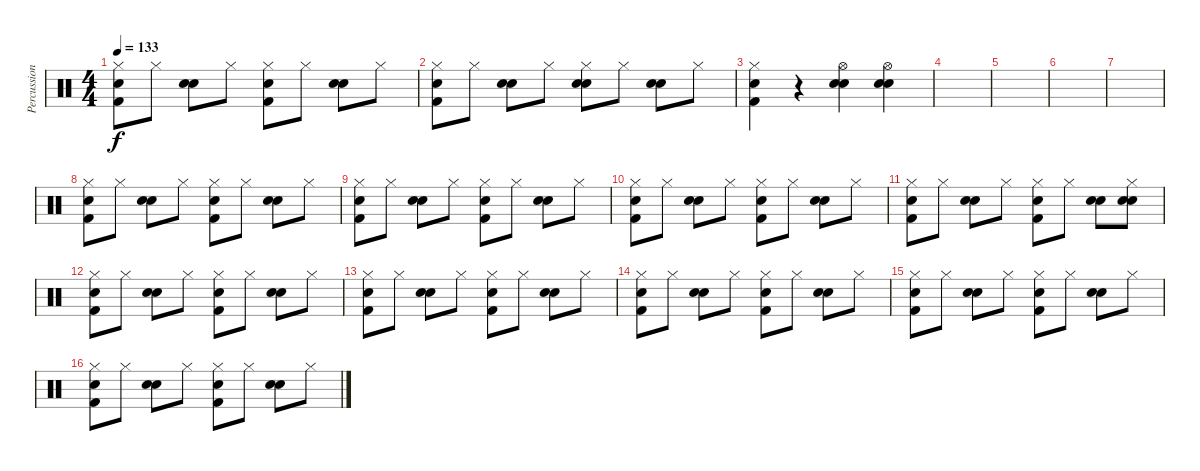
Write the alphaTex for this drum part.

\track ("Percussions" "Percussion") {instrument percussion}
\staff {score}
\articulation defaults
\ts (4 4)
\tempo 133
\clef neutral
\ks c
("Snare (hit) 2" "Kick (hit) 2" "Hi-Hat (closed)").8{dy f} "Hi-Hat (closed)".8 ("Electric Snare (hit)" "Electric Snare (hit)").8 "Hi-Hat (closed)".8 ("Snare (hit) 2" "Kick (hit) 2" "Hi-Hat (closed)").8 "Hi-Hat (closed)".8 ("Electric Snare (hit)" "Electric Snare (hit)").8 "Hi-Hat (closed)".8 |
("Snare (hit) 2" "Kick (hit) 2" "Hi-Hat (closed)").8 "Hi-Hat (closed)".8 ("Electric Snare (hit)" "Electric Snare (hit)").8 "Hi-Hat (closed)".8 ("Electric Snare (hit)" "Electric Snare (hit)" "Hi-Hat (closed)").8 "Hi-Hat (closed)".8 ("Electric Snare (hit)" "Electric Snare (hit)").8 "Hi-Hat (closed)".8 |
("Snare (hit) 2" "Kick (hit) 2" "Hi-Hat (closed)").4 r.4 ("Electric Snare (hit)" "Electric Snare (hit)" "Hi-Hat (open)").4 ("Snare (hit) 2" "Snare (hit) 2" "Hi-Hat (open)").4 |
|
|
|
|
("Snare (hit) 2" "Kick (hit) 2" "Hi-Hat (closed)").8 "Hi-Hat (closed)".8 ("Electric Snare (hit)" "Electric Snare (hit)").8 "Hi-Hat (closed)".8 ("Snare (hit) 2" "Kick (hit) 2" "Hi-Hat (closed)").8 "Hi-Hat (closed)".8 ("Electric Snare (hit)" "Electric Snare (hit)").8 "Hi-Hat (closed)".8 |
("Snare (hit) 2" "Kick (hit) 2" "Hi-Hat (closed)").8 "Hi-Hat (closed)".8 ("Electric Snare (hit)" "Electric Snare (hit)").8 "Hi-Hat (closed)".8 ("Snare (hit) 2" "Kick (hit) 2" "Hi-Hat (closed)").8 "Hi-Hat (closed)".8 ("Electric Snare (hit)" "Electric Snare (hit)").8 "Hi-Hat (closed)".8 |
("Snare (hit) 2" "Kick (hit) 2" "Hi-Hat (closed)").8 "Hi-Hat (closed)".8 ("Electric Snare (hit)" "Electric Snare (hit)").8 "Hi-Hat (closed)".8 ("Snare (hit) 2" "Kick (hit) 2" "Hi-Hat (closed)").8 "Hi-Hat (closed)".8 ("Electric Snare (hit)" "Electric Snare (hit)").8 "Hi-Hat (closed)".8 |
("Snare (hit) 2" "Kick (hit) 2" "Hi-Hat (closed)").8 "Hi-Hat (closed)".8 ("Electric Snare (hit)" "Electric Snare (hit)").8 "Hi-Hat (closed)".8 ("Snare (hit) 2" "Kick (hit) 2" "Hi-Hat (closed)").8 "Hi-Hat (closed)".8 ("Electric Snare (hit)" "Electric Snare (hit)").8 ("Electric Snare (hit)" "Electric Snare (hit)" "Hi-Hat (closed)").8 |
("Snare (hit) 2" "Kick (hit) 2" "Hi-Hat (closed)").8 "Hi-Hat (closed)".8 ("Electric Snare (hit)" "Electric Snare (hit)").8 "Hi-Hat (closed)".8 ("Snare (hit) 2" "Kick (hit) 2" "Hi-Hat (closed)").8 "Hi-Hat (closed)".8 ("Electric Snare (hit)" "Electric Snare (hit)").8 "Hi-Hat (closed)".8 |
("Snare (hit) 2" "Kick (hit) 2" "Hi-Hat (closed)").8 "Hi-Hat (closed)".8 ("Electric Snare (hit)" "Electric Snare (hit)").8 "Hi-Hat (closed)".8 ("Snare (hit) 2" "Kick (hit) 2" "Hi-Hat (closed)").8 "Hi-Hat (closed)".8 ("Electric Snare (hit)" "Electric Snare (hit)").8 "Hi-Hat (closed)".8 |
("Snare (hit) 2" "Kick (hit) 2" "Hi-Hat (closed)").8 "Hi-Hat (closed)".8 ("Electric Snare (hit)" "Electric Snare (hit)").8 "Hi-Hat (closed)".8 ("Snare (hit) 2" "Kick (hit) 2" "Hi-Hat (closed)").8 "Hi-Hat (closed)".8 ("Electric Snare (hit)" "Electric Snare (hit)").8 "Hi-Hat (closed)".8 |
("Snare (hit) 2" "Kick (hit) 2" "Hi-Hat (closed)").8 "Hi-Hat (closed)".8 ("Electric Snare (hit)" "Electric Snare (hit)").8 "Hi-Hat (closed)".8 ("Snare (hit) 2" "Kick (hit) 2" "Hi-Hat (closed)").8 "Hi-Hat (closed)".8 ("Electric Snare (hit)" "Electric Snare (hit)").8 "Hi-Hat (closed)".8 |
("Snare (hit) 2" "Kick (hit) 2" "Hi-Hat (closed)").8 "Hi-Hat (closed)".8 ("Electric Snare (hit)" "Electric Snare (hit)").8 "Hi-Hat (closed)".8 ("Snare (hit) 2" "Kick (hit) 2" "Hi-Hat (closed)").8 "Hi-Hat (closed)".8 ("Electric Snare (hit)" "Electric Snare (hit)").8 "Hi-Hat (closed)".8
